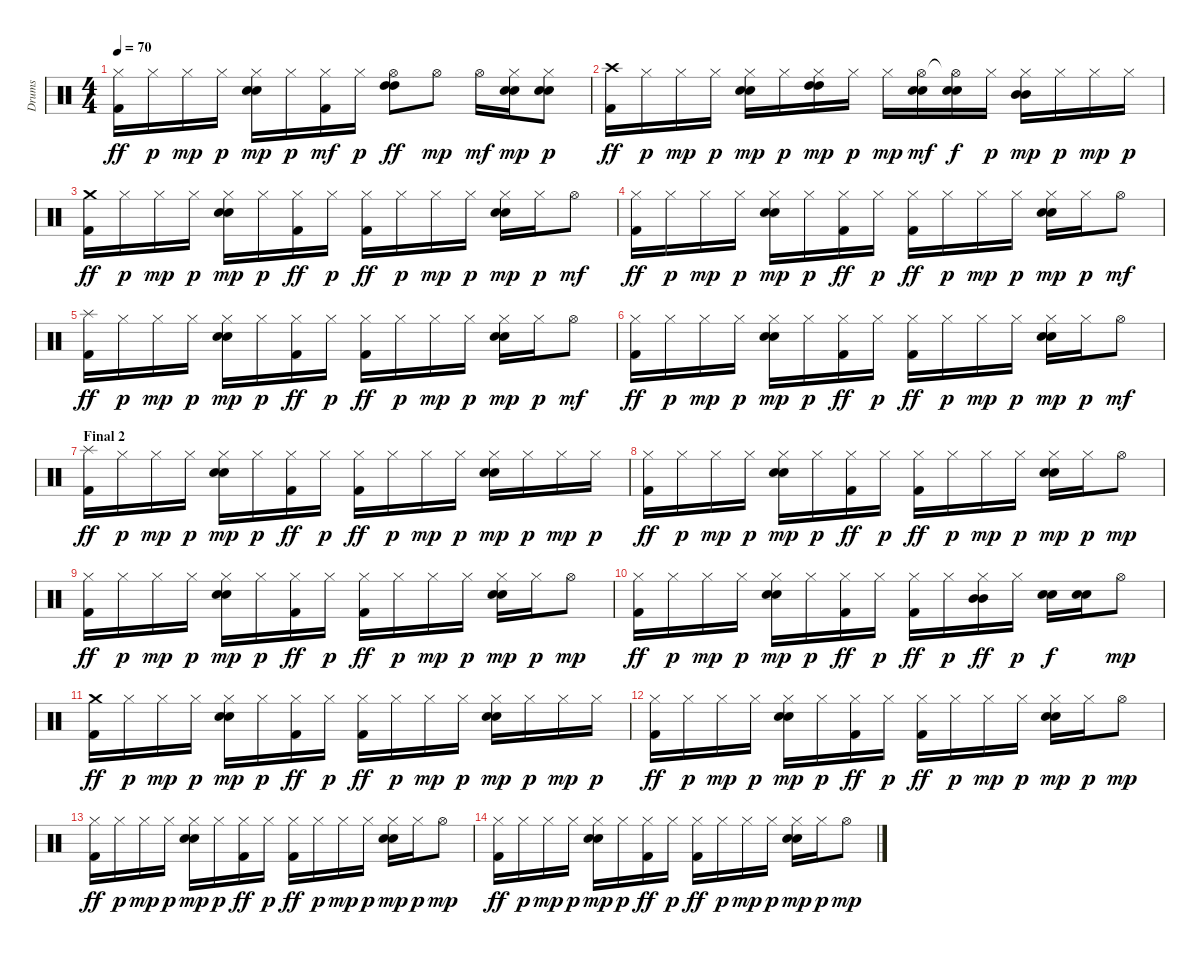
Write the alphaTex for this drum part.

\track ("Drums" "Drums") {instrument percussion}
\staff {score}
\articulation defaults
\ts (4 4)
\tempo 70
\clef neutral
\ks c
("Hi-Hat (closed)" "Kick (hit) 2").16{dy ff} "Hi-Hat (closed)".16{dy p} "Hi-Hat (closed)".16{dy mp} "Hi-Hat (closed)".16{dy p} ("Hi-Hat (closed)" "Electric Snare (hit)" "Snare (hit) 2").16{dy mp} "Hi-Hat (closed)".16{dy p} ("Hi-Hat (closed)" "Kick (hit) 2").16{dy mf} "Hi-Hat (closed)".16{dy p} ("Hi-Hat (open)" "High Tom (hit)" "High Tom (hit)").8{dy ff} "Hi-Hat (open)".8{dy mp} "Hi-Hat (open)".16{dy mf} ("Hi-Hat (closed)" "Electric Snare (hit)" "Snare (hit) 2").16{dy mp} ("Hi-Hat (closed)" "Electric Snare (hit)" "Snare (hit) 2").8{dy p} |
("Crash high (hit)" "Kick (hit) 2").16{dy ff} "Hi-Hat (closed)".16{dy p} "Hi-Hat (closed)".16{dy mp} "Hi-Hat (closed)".16{dy p} ("Hi-Hat (closed)" "Electric Snare (hit)" "Snare (hit) 2").16{dy mp} "Hi-Hat (closed)".16{dy p} ("Hi-Hat (closed)" "High Tom (hit)" "High Tom (hit)").16{dy mp} "Hi-Hat (closed)".16{dy p} "Hi-Hat (closed)".16{dy mp} ("Hi-Hat (open)" "Electric Snare (hit)" "Snare (hit) 2").16{dy mf} ("Hi-Hat (open)"{t} "Electric Snare (hit)" "Snare (hit) 2").16{dy f} "Hi-Hat (closed)".16{dy p} ("Hi-Hat (closed)" "Mid Tom (hit)" "Mid Tom (hit)").16{dy mp} "Hi-Hat (closed)".16{dy p} "Hi-Hat (closed)".16{dy mp} "Hi-Hat (closed)".16{dy p} |
("Crash medium (hit)" "Kick (hit) 2").16{dy ff} "Hi-Hat (closed)".16{dy p} "Hi-Hat (closed)".16{dy mp} "Hi-Hat (closed)".16{dy p} ("Hi-Hat (closed)" "Electric Snare (hit)" "Snare (hit) 2").16{dy mp} "Hi-Hat (closed)".16{dy p} ("Hi-Hat (closed)" "Kick (hit) 2").16{dy ff} "Hi-Hat (closed)".16{dy p} ("Hi-Hat (closed)" "Kick (hit) 2").16{dy ff} "Hi-Hat (closed)".16{dy p} "Hi-Hat (closed)".16{dy mp} "Hi-Hat (closed)".16{dy p} ("Hi-Hat (closed)" "Electric Snare (hit)" "Snare (hit) 2").16{dy mp} "Hi-Hat (closed)".16{dy p} "Hi-Hat (open)".8{dy mf} |
("Hi-Hat (closed)" "Kick (hit) 2").16{dy ff} "Hi-Hat (closed)".16{dy p} "Hi-Hat (closed)".16{dy mp} "Hi-Hat (closed)".16{dy p} ("Hi-Hat (closed)" "Electric Snare (hit)" "Snare (hit) 2").16{dy mp} "Hi-Hat (closed)".16{dy p} ("Hi-Hat (closed)" "Kick (hit) 2").16{dy ff} "Hi-Hat (closed)".16{dy p} ("Hi-Hat (closed)" "Kick (hit) 2").16{dy ff} "Hi-Hat (closed)".16{dy p} "Hi-Hat (closed)".16{dy mp} "Hi-Hat (closed)".16{dy p} ("Hi-Hat (closed)" "Electric Snare (hit)" "Snare (hit) 2").16{dy mp} "Hi-Hat (closed)".16{dy p} "Hi-Hat (open)".8{dy mf} |
("Splash (hit)" "Kick (hit) 2").16{dy ff} "Hi-Hat (closed)".16{dy p} "Hi-Hat (closed)".16{dy mp} "Hi-Hat (closed)".16{dy p} ("Hi-Hat (closed)" "Electric Snare (hit)" "Snare (hit) 2").16{dy mp} "Hi-Hat (closed)".16{dy p} ("Hi-Hat (closed)" "Kick (hit) 2").16{dy ff} "Hi-Hat (closed)".16{dy p} ("Hi-Hat (closed)" "Kick (hit) 2").16{dy ff} "Hi-Hat (closed)".16{dy p} "Hi-Hat (closed)".16{dy mp} "Hi-Hat (closed)".16{dy p} ("Hi-Hat (closed)" "Electric Snare (hit)" "Snare (hit) 2").16{dy mp} "Hi-Hat (closed)".16{dy p} "Hi-Hat (open)".8{dy mf} |
("Hi-Hat (closed)" "Kick (hit) 2").16{dy ff} "Hi-Hat (closed)".16{dy p} "Hi-Hat (closed)".16{dy mp} "Hi-Hat (closed)".16{dy p} ("Hi-Hat (closed)" "Electric Snare (hit)" "Snare (hit) 2").16{dy mp} "Hi-Hat (closed)".16{dy p} ("Hi-Hat (closed)" "Kick (hit) 2").16{dy ff} "Hi-Hat (closed)".16{dy p} ("Hi-Hat (closed)" "Kick (hit) 2").16{dy ff} "Hi-Hat (closed)".16{dy p} "Hi-Hat (closed)".16{dy mp} "Hi-Hat (closed)".16{dy p} ("Hi-Hat (closed)" "Electric Snare (hit)" "Snare (hit) 2").16{dy mp} "Hi-Hat (closed)".16{dy p} "Hi-Hat (open)".8{dy mf} |
\section ("" "Final 2")
("Splash (hit)" "Kick (hit) 2").16{dy ff} "Hi-Hat (closed)".16{dy p} "Hi-Hat (closed)".16{dy mp} "Hi-Hat (closed)".16{dy p} ("Hi-Hat (closed)" "Electric Snare (hit)" "Snare (hit) 2").16{dy mp} "Hi-Hat (closed)".16{dy p} ("Hi-Hat (closed)" "Kick (hit) 2").16{dy ff} "Hi-Hat (closed)".16{dy p} ("Hi-Hat (closed)" "Kick (hit) 2").16{dy ff} "Hi-Hat (closed)".16{dy p} "Hi-Hat (closed)".16{dy mp} "Hi-Hat (closed)".16{dy p} ("Hi-Hat (closed)" "Electric Snare (hit)" "Snare (hit) 2").16{dy mp} "Hi-Hat (closed)".16{dy p} "Hi-Hat (closed)".16{dy mp} "Hi-Hat (closed)".16{dy p} |
("Hi-Hat (closed)" "Kick (hit) 2").16{dy ff} "Hi-Hat (closed)".16{dy p} "Hi-Hat (closed)".16{dy mp} "Hi-Hat (closed)".16{dy p} ("Hi-Hat (closed)" "Electric Snare (hit)" "Snare (hit) 2").16{dy mp} "Hi-Hat (closed)".16{dy p} ("Hi-Hat (closed)" "Kick (hit) 2").16{dy ff} "Hi-Hat (closed)".16{dy p} ("Hi-Hat (closed)" "Kick (hit) 2").16{dy ff} "Hi-Hat (closed)".16{dy p} "Hi-Hat (closed)".16{dy mp} "Hi-Hat (closed)".16{dy p} ("Hi-Hat (closed)" "Electric Snare (hit)" "Snare (hit) 2").16{dy mp} "Hi-Hat (closed)".16{dy p} "Hi-Hat (open)".8{dy mp} |
("Hi-Hat (closed)" "Kick (hit) 2").16{dy ff} "Hi-Hat (closed)".16{dy p} "Hi-Hat (closed)".16{dy mp} "Hi-Hat (closed)".16{dy p} ("Hi-Hat (closed)" "Electric Snare (hit)" "Snare (hit) 2").16{dy mp} "Hi-Hat (closed)".16{dy p} ("Hi-Hat (closed)" "Kick (hit) 2").16{dy ff} "Hi-Hat (closed)".16{dy p} ("Hi-Hat (closed)" "Kick (hit) 2").16{dy ff} "Hi-Hat (closed)".16{dy p} "Hi-Hat (closed)".16{dy mp} "Hi-Hat (closed)".16{dy p} ("Hi-Hat (closed)" "Electric Snare (hit)" "Snare (hit) 2").16{dy mp} "Hi-Hat (closed)".16{dy p} "Hi-Hat (open)".8{dy mp} |
("Hi-Hat (closed)" "Kick (hit) 2").16{dy ff} "Hi-Hat (closed)".16{dy p} "Hi-Hat (closed)".16{dy mp} "Hi-Hat (closed)".16{dy p} ("Hi-Hat (closed)" "Electric Snare (hit)" "Snare (hit) 2").16{dy mp} "Hi-Hat (closed)".16{dy p} ("Hi-Hat (closed)" "Kick (hit) 2").16{dy ff} "Hi-Hat (closed)".16{dy p} ("Hi-Hat (closed)" "Kick (hit) 2").16{dy ff} "Hi-Hat (closed)".16{dy p} ("Hi-Hat (closed)" "Mid Tom (hit)" "Mid Tom (hit)").16{dy ff} "Hi-Hat (closed)".16{dy p} ("Electric Snare (hit)" "Snare (hit) 2").16{dy f} ("Electric Snare (hit)" "Snare (hit) 2").16 "Hi-Hat (open)".8{dy mp} |
("Crash medium (hit)" "Kick (hit) 2").16{dy ff volume 6} "Hi-Hat (closed)".16{dy p} "Hi-Hat (closed)".16{dy mp} "Hi-Hat (closed)".16{dy p} ("Hi-Hat (closed)" "Electric Snare (hit)" "Snare (hit) 2").16{dy mp} "Hi-Hat (closed)".16{dy p} ("Hi-Hat (closed)" "Kick (hit) 2").16{dy ff} "Hi-Hat (closed)".16{dy p} ("Hi-Hat (closed)" "Kick (hit) 2").16{dy ff} "Hi-Hat (closed)".16{dy p} "Hi-Hat (closed)".16{dy mp} "Hi-Hat (closed)".16{dy p} ("Hi-Hat (closed)" "Electric Snare (hit)" "Snare (hit) 2").16{dy mp} "Hi-Hat (closed)".16{dy p} "Hi-Hat (closed)".16{dy mp} "Hi-Hat (closed)".16{dy p} |
("Hi-Hat (closed)" "Kick (hit) 2").16{dy ff} "Hi-Hat (closed)".16{dy p} "Hi-Hat (closed)".16{dy mp} "Hi-Hat (closed)".16{dy p} ("Hi-Hat (closed)" "Electric Snare (hit)" "Snare (hit) 2").16{dy mp} "Hi-Hat (closed)".16{dy p} ("Hi-Hat (closed)" "Kick (hit) 2").16{dy ff} "Hi-Hat (closed)".16{dy p} ("Hi-Hat (closed)" "Kick (hit) 2").16{dy ff} "Hi-Hat (closed)".16{dy p} "Hi-Hat (closed)".16{dy mp} "Hi-Hat (closed)".16{dy p} ("Hi-Hat (closed)" "Electric Snare (hit)" "Snare (hit) 2").16{dy mp} "Hi-Hat (closed)".16{dy p} "Hi-Hat (open)".8{dy mp} |
("Hi-Hat (closed)" "Kick (hit) 2").16{dy ff volume 0} "Hi-Hat (closed)".16{dy p} "Hi-Hat (closed)".16{dy mp} "Hi-Hat (closed)".16{dy p} ("Hi-Hat (closed)" "Electric Snare (hit)" "Snare (hit) 2").16{dy mp} "Hi-Hat (closed)".16{dy p} ("Hi-Hat (closed)" "Kick (hit) 2").16{dy ff} "Hi-Hat (closed)".16{dy p} ("Hi-Hat (closed)" "Kick (hit) 2").16{dy ff} "Hi-Hat (closed)".16{dy p} "Hi-Hat (closed)".16{dy mp} "Hi-Hat (closed)".16{dy p} ("Hi-Hat (closed)" "Electric Snare (hit)" "Snare (hit) 2").16{dy mp} "Hi-Hat (closed)".16{dy p} "Hi-Hat (open)".8{dy mp} |
("Hi-Hat (closed)" "Kick (hit) 2").16{dy ff} "Hi-Hat (closed)".16{dy p} "Hi-Hat (closed)".16{dy mp} "Hi-Hat (closed)".16{dy p} ("Hi-Hat (closed)" "Electric Snare (hit)" "Snare (hit) 2").16{dy mp} "Hi-Hat (closed)".16{dy p} ("Hi-Hat (closed)" "Kick (hit) 2").16{dy ff} "Hi-Hat (closed)".16{dy p} ("Hi-Hat (closed)" "Kick (hit) 2").16{dy ff} "Hi-Hat (closed)".16{dy p} "Hi-Hat (closed)".16{dy mp} "Hi-Hat (closed)".16{dy p} ("Hi-Hat (closed)" "Electric Snare (hit)" "Snare (hit) 2").16{dy mp} "Hi-Hat (closed)".16{dy p} "Hi-Hat (open)".8{dy mp}
